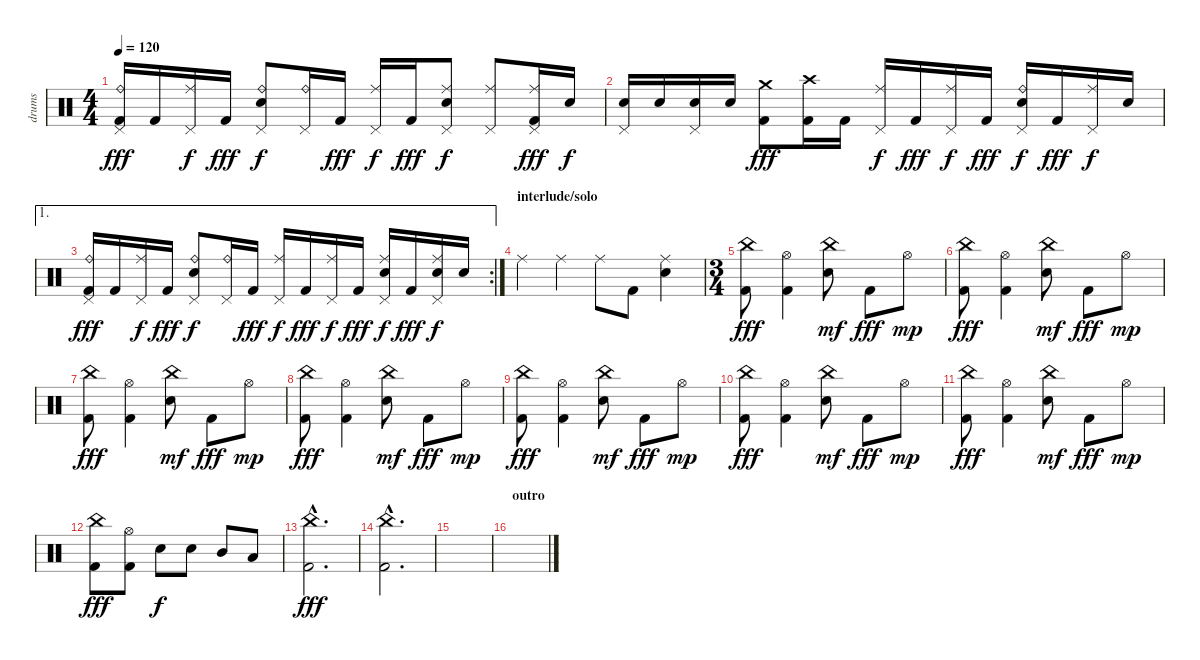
\track ("drums" "drums") {instrument percussion}
\staff {score}
\articulation defaults
\ts (4 4)
\tempo 120
\clef neutral
\ks c
("Ride (bell)" "Pedal Hi-Hat (hit)" "Kick (hit) 2").16{dy fff} "Kick (hit) 2".16 ("Ride (middle)" "Pedal Hi-Hat (hit)").16{dy f} "Kick (hit) 2".16{dy fff} ("Ride (bell)" "Pedal Hi-Hat (hit)" "Electric Snare (hit)").8{dy f} ("Ride (bell)" "Pedal Hi-Hat (hit)").16 "Kick (hit) 2".16{dy fff} ("Ride (middle)" "Pedal Hi-Hat (hit)").16{dy f} "Kick (hit) 2".16{dy fff} ("Ride (middle)" "Pedal Hi-Hat (hit)" "Electric Snare (hit)").8{dy f} ("Ride (middle)" "Pedal Hi-Hat (hit)").8 ("Ride (middle)" "Pedal Hi-Hat (hit)" "Kick (hit) 2").16{dy fff} "Electric Snare (hit)".16{dy f} |
("Pedal Hi-Hat (hit)" "Electric Snare (hit)").16 "Electric Snare (hit)".16 ("Pedal Hi-Hat (hit)" "Electric Snare (hit)").16 "Electric Snare (hit)".16 ("Crash medium (hit)" "Kick (hit) 2").8{dy fff} ("Crash high (hit)" "Kick (hit) 2").16 "Kick (hit) 2".16 ("Ride (middle)" "Pedal Hi-Hat (hit)").16{dy f} "Kick (hit) 2".16{dy fff} ("Ride (middle)" "Pedal Hi-Hat (hit)").16{dy f} "Kick (hit) 2".16{dy fff} ("Ride (bell)" "Pedal Hi-Hat (hit)" "Electric Snare (hit)").16{dy f} "Kick (hit) 2".16{dy fff} ("Ride (middle)" "Pedal Hi-Hat (hit)").16{dy f} "Electric Snare (hit)".16 |
\ae 1
\rc 2
("Ride (bell)" "Pedal Hi-Hat (hit)" "Kick (hit) 2").16{dy fff} "Kick (hit) 2".16 ("Ride (middle)" "Pedal Hi-Hat (hit)").16{dy f} "Kick (hit) 2".16{dy fff} ("Ride (bell)" "Pedal Hi-Hat (hit)" "Electric Snare (hit)").8{dy f} ("Ride (bell)" "Pedal Hi-Hat (hit)").16 "Kick (hit) 2".16{dy fff} ("Ride (middle)" "Pedal Hi-Hat (hit)").16{dy f} "Kick (hit) 2".16{dy fff} ("Ride (middle)" "Pedal Hi-Hat (hit)").16{dy f} "Kick (hit) 2".16{dy fff} ("Ride (middle)" "Pedal Hi-Hat (hit)" "Electric Snare (hit)").16{dy f} "Kick (hit) 2".16{dy fff} ("Ride (middle)" "Pedal Hi-Hat (hit)" "Electric Snare (hit)").16{dy f} "Electric Snare (hit)".16 |
\section ("" "interlude/solo")
"Ride (middle)".4 "Ride (middle)".4 "Ride (middle)".8 "Kick (hit) 2".8 ("Ride (middle)" "Electric Snare (hit)").4 |
\ts (3 4)
("China (hit)" "Kick (hit) 2").8{dy fff} ("Hi-Hat (open)" "Kick (hit) 2").4 ("China (hit)" "Electric Snare (hit)").8{dy mf} "Kick (hit) 2".8{dy fff} "Hi-Hat (open)".8{dy mp} |
("China (hit)" "Kick (hit) 2").8{dy fff} ("Hi-Hat (open)" "Kick (hit) 2").4 ("China (hit)" "Electric Snare (hit)").8{dy mf} "Kick (hit) 2".8{dy fff} "Hi-Hat (open)".8{dy mp} |
("China (hit)" "Kick (hit) 2").8{dy fff} ("Hi-Hat (open)" "Kick (hit) 2").4 ("China (hit)" "Electric Snare (hit)").8{dy mf} "Kick (hit) 2".8{dy fff} "Hi-Hat (open)".8{dy mp} |
("China (hit)" "Kick (hit) 2").8{dy fff} ("Hi-Hat (open)" "Kick (hit) 2").4 ("China (hit)" "Electric Snare (hit)").8{dy mf} "Kick (hit) 2".8{dy fff} "Hi-Hat (open)".8{dy mp} |
("China (hit)" "Kick (hit) 2").8{dy fff} ("Hi-Hat (open)" "Kick (hit) 2").4 ("China (hit)" "Electric Snare (hit)").8{dy mf} "Kick (hit) 2".8{dy fff} "Hi-Hat (open)".8{dy mp} |
("China (hit)" "Kick (hit) 2").8{dy fff} ("Hi-Hat (open)" "Kick (hit) 2").4 ("China (hit)" "Electric Snare (hit)").8{dy mf} "Kick (hit) 2".8{dy fff} "Hi-Hat (open)".8{dy mp} |
("China (hit)" "Kick (hit) 2").8{dy fff} ("Hi-Hat (open)" "Kick (hit) 2").4 ("China (hit)" "Electric Snare (hit)").8{dy mf} "Kick (hit) 2".8{dy fff} "Hi-Hat (open)".8{dy mp} |
("China (hit)" "Kick (hit) 2").8{dy fff} ("Hi-Hat (open)" "Kick (hit) 2").8 "Electric Snare (hit)".8{dy f} "Electric Snare (hit)".8 "Mid Tom (hit)".8 "Low Tom (hit)".8 |
("China (hit)"{hac} "Kick (hit) 2"{hac}).2{d dy fff} |
("China (hit)"{hac} "Kick (hit) 2"{hac}).2{d} |
|
\section ("" "outro")
